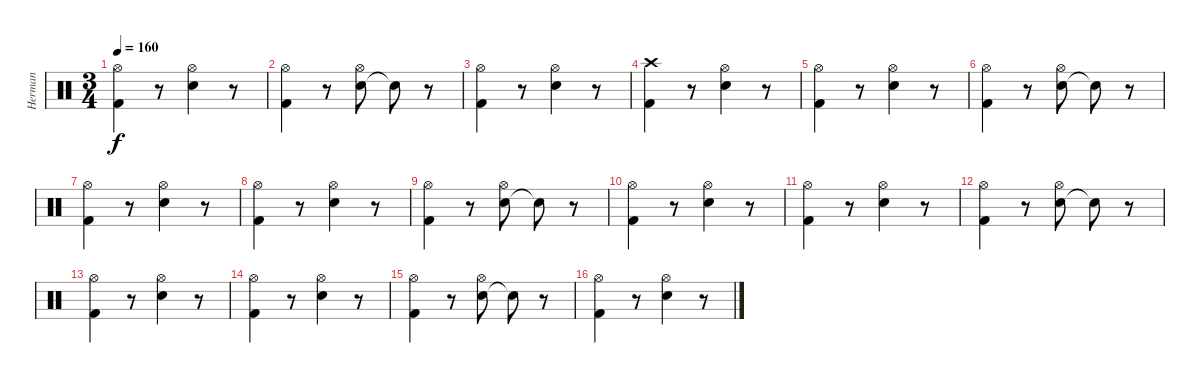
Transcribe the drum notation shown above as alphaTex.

\track ("Herman" "Herman") {instrument percussion}
\staff {score}
\articulation defaults
\ts (3 4)
\tempo 160
\clef neutral
\ks c
("Kick (hit) 2" "Hi-Hat (open)").4{dy f} r.8 ("Electric Snare (hit)" "Hi-Hat (open)").4 r.8 |
("Kick (hit) 2" "Hi-Hat (open)").4 r.8 ("Electric Snare (hit)" "Hi-Hat (open)").8 "Snare (hit)"{t}.8 r.8 |
("Kick (hit) 2" "Hi-Hat (open)").4 r.8 ("Electric Snare (hit)" "Hi-Hat (open)").4 r.8 |
("Kick (hit) 2" "Crash high (hit)").4 r.8 ("Electric Snare (hit)" "Hi-Hat (open)").4 r.8 |
("Kick (hit) 2" "Hi-Hat (open)").4 r.8 ("Electric Snare (hit)" "Hi-Hat (open)").4 r.8 |
("Kick (hit) 2" "Hi-Hat (open)").4 r.8 ("Electric Snare (hit)" "Hi-Hat (open)").8 "Snare (hit)"{t}.8 r.8 |
("Kick (hit) 2" "Hi-Hat (open)").4 r.8 ("Electric Snare (hit)" "Hi-Hat (open)").4 r.8 |
("Kick (hit) 2" "Hi-Hat (open)").4 r.8 ("Electric Snare (hit)" "Hi-Hat (open)").4 r.8 |
("Kick (hit) 2" "Hi-Hat (open)").4 r.8 ("Electric Snare (hit)" "Hi-Hat (open)").8 "Snare (hit)"{t}.8 r.8 |
("Kick (hit) 2" "Hi-Hat (open)").4 r.8 ("Electric Snare (hit)" "Hi-Hat (open)").4 r.8 |
("Kick (hit) 2" "Hi-Hat (open)").4 r.8 ("Electric Snare (hit)" "Hi-Hat (open)").4 r.8 |
("Kick (hit) 2" "Hi-Hat (open)").4 r.8 ("Electric Snare (hit)" "Hi-Hat (open)").8 "Snare (hit)"{t}.8 r.8 |
("Kick (hit) 2" "Hi-Hat (open)").4 r.8 ("Electric Snare (hit)" "Hi-Hat (open)").4 r.8 |
("Kick (hit) 2" "Hi-Hat (open)").4 r.8 ("Electric Snare (hit)" "Hi-Hat (open)").4 r.8 |
("Kick (hit) 2" "Hi-Hat (open)").4 r.8 ("Electric Snare (hit)" "Hi-Hat (open)").8 "Snare (hit)"{t}.8 r.8 |
("Kick (hit) 2" "Hi-Hat (open)").4 r.8 ("Electric Snare (hit)" "Hi-Hat (open)").4 r.8
